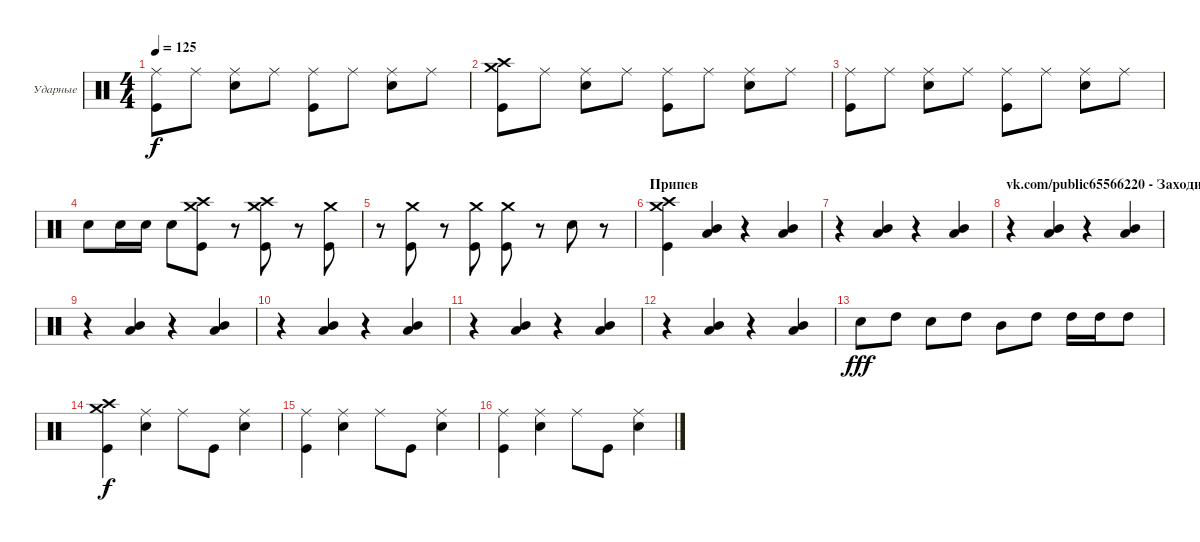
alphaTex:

\bracketExtendMode groupsimilarinstruments
\firstSystemTrackNameOrientation horizontal
\otherSystemsTrackNameOrientation horizontal
\track ("Максим Удалов" "Ударные") {instrument percussion}
\staff {score}
\articulation defaults
\ts (4 4)
\tempo 125
\clef neutral
\ks c
("Kick (hit)" "Ride (middle)").8{dy f} "Ride (middle)".8 ("Snare (hit) 2" "Ride (middle)").8 "Ride (middle)".8 ("Kick (hit)" "Ride (middle)").8 "Ride (middle)".8 ("Snare (hit) 2" "Ride (middle)").8 "Ride (middle)".8 |
("Kick (hit)" "Crash medium (hit)" "Crash high (hit)").8 "Ride (middle)".8 ("Snare (hit) 2" "Ride (middle)").8 "Ride (middle)".8 ("Kick (hit)" "Ride (middle)").8 "Ride (middle)".8 ("Snare (hit) 2" "Ride (middle)").8 "Ride (middle)".8 |
("Kick (hit)" "Ride (middle)").8 "Ride (middle)".8 ("Snare (hit) 2" "Ride (middle)").8 "Ride (middle)".8 ("Kick (hit)" "Ride (middle)").8 "Ride (middle)".8 ("Snare (hit) 2" "Ride (middle)").8 "Ride (middle)".8 |
"Snare (hit) 2".8 "Snare (hit) 2".16 "Snare (hit) 2".16 "Snare (hit) 2".8 ("Kick (hit)" "Crash medium (hit)" "Crash high (hit)").8 r.8 ("Kick (hit)" "Crash medium (hit)" "Crash high (hit)").8 r.8 ("Kick (hit)" "Crash medium (hit)").8 |
r.8 ("Kick (hit)" "Crash medium (hit)").8 r.8 ("Kick (hit)" "Crash medium (hit)").8 ("Kick (hit)" "Crash medium (hit)").8 r.8 "Snare (hit) 2".8 r.8 |
\section ("" "Припев")
("Kick (hit)" "Crash medium (hit)" "Crash high (hit)").4 ("Low Tom (hit)" "Mid Tom (hit)").4 r.4 ("Low Tom (hit)" "Mid Tom (hit)").4 |
r.4 ("Low Tom (hit)" "Mid Tom (hit)").4 r.4 ("Low Tom (hit)" "Mid Tom (hit)").4 |
\section ("" "vk.com/public65566220 - Заходите")
r.4 ("Low Tom (hit)" "Mid Tom (hit)").4 r.4 ("Low Tom (hit)" "Mid Tom (hit)").4 |
r.4 ("Low Tom (hit)" "Mid Tom (hit)").4 r.4 ("Low Tom (hit)" "Mid Tom (hit)").4 |
r.4 ("Low Tom (hit)" "Mid Tom (hit)").4 r.4 ("Low Tom (hit)" "Mid Tom (hit)").4 |
r.4 ("Low Tom (hit)" "Mid Tom (hit)").4 r.4 ("Low Tom (hit)" "Mid Tom (hit)").4 |
r.4 ("Low Tom (hit)" "Mid Tom (hit)").4 r.4 ("Low Tom (hit)" "Mid Tom (hit)").4 |
"Snare (hit) 2".8{dy fff} "High Tom (hit)".8 "Snare (hit) 2".8 "High Tom (hit)".8 "Mid Tom (hit)".8 "High Tom (hit)".8 "High Tom (hit)".16 "High Tom (hit)".16 "High Tom (hit)".8 |
("Kick (hit)" "Crash medium (hit)" "Crash high (hit)").4{dy f} ("Snare (hit) 2" "Ride (middle)").4 "Ride (middle)".8 "Kick (hit)".8 ("Snare (hit) 2" "Ride (middle)").4 |
("Kick (hit)" "Ride (middle)").4 ("Snare (hit) 2" "Ride (middle)").4 "Ride (middle)".8 "Kick (hit)".8 ("Snare (hit) 2" "Ride (middle)").4 |
("Kick (hit)" "Ride (middle)").4 ("Snare (hit) 2" "Ride (middle)").4 "Ride (middle)".8 "Kick (hit)".8 ("Snare (hit) 2" "Ride (middle)").4
